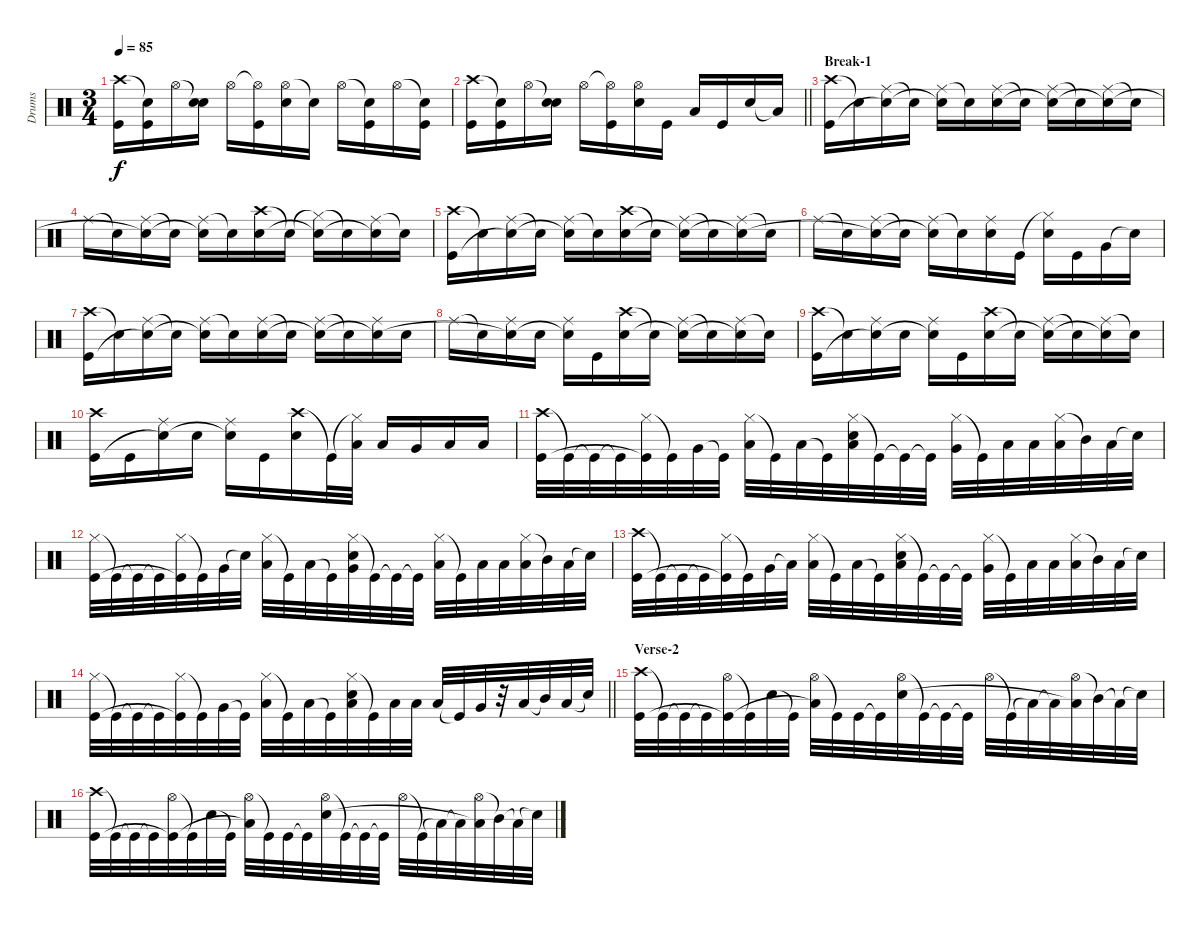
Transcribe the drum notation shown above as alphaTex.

\track ("Drums" "Drums") {instrument percussion}
\staff {score}
\articulation defaults
\ts (3 4)
\tempo 85
\clef neutral
\ks c
("Crash high (hit)" "Kick (hit)").16{dy f} ("Snare (hit)"{t} "Kick (hit)").16 "Hi-Hat (open)".16 ("Snare (hit)"{t} "Electric Snare (hit)").16 "Hi-Hat (open)".16 ("Hi-Hat (open)"{t} "Kick (hit)").16 ("Hi-Hat (open)" "Electric Snare (hit)").16 "Snare (hit)"{t}.16 "Hi-Hat (open)".16 ("Snare (hit)"{t} "Kick (hit)").16 "Hi-Hat (open)".16 ("Snare (hit)"{t} "Kick (hit)").16 |
\barLineRight lightlight
("Crash high (hit)" "Kick (hit)").16 ("Snare (hit)"{t} "Kick (hit)").16 "Hi-Hat (open)".16 ("Snare (hit)"{t} "Electric Snare (hit)").16 "Hi-Hat (open)".16 ("Hi-Hat (open)"{t} "Kick (hit)").16 ("Hi-Hat (open)" "Electric Snare (hit)").16 "Kick (hit)".16 "Low Tom (hit)".16 "Kick (hit)".16 "Electric Snare (hit)".16 "Low Floor Tom (hit)"{t}.16 |
\section ("" "Break-1")
("Crash high (hit)" "Kick (hit)").16 "Snare (hit)"{t}.16 ("Ride (middle)" "Snare (hit)"{t}).16 "Snare (hit)"{t}.16 ("Ride (middle)" "Snare (hit)"{t}).16 "Snare (hit)"{t}.16 ("Ride (middle)" "Electric Snare (hit)").16 "Snare (hit)"{t}.16 ("Ride (middle)" "Snare (hit)"{t}).16 "Snare (hit)"{t}.16 ("Ride (middle)" "Snare (hit)"{t}).16 "Snare (hit)"{t}.16 |
"Ride (middle)".16 "Snare (hit)"{t}.16 ("Ride (middle)" "Snare (hit)"{t}).16 "Snare (hit)"{t}.16 ("Ride (middle)" "Snare (hit)"{t}).16 "Snare (hit)"{t}.16 ("Crash high (hit)" "Electric Snare (hit)").16 "Snare (hit)"{t}.16 ("Hi-Hat (closed)"{t} "Snare (hit)"{t}).16 "Snare (hit)"{t}.16 ("Ride (middle)" "Snare (hit)"{t}).16 "Snare (hit)"{t}.16 |
("Crash high (hit)" "Kick (hit)").16 "Snare (hit)"{t}.16 ("Ride (middle)" "Snare (hit)"{t}).16 "Snare (hit)"{t}.16 ("Ride (middle)" "Snare (hit)"{t}).16 "Snare (hit)"{t}.16 ("Crash high (hit)" "Electric Snare (hit)").16 "Snare (hit)"{t}.16 ("Ride (middle)" "Snare (hit)"{t}).16 "Snare (hit)"{t}.16 ("Ride (middle)" "Snare (hit)"{t}).16 "Snare (hit)"{t}.16 |
"Ride (middle)".16 "Snare (hit)"{t}.16 ("Ride (middle)" "Snare (hit)"{t}).16 "Snare (hit)"{t}.16 ("Ride (middle)" "Snare (hit)"{t}).16 "Snare (hit)"{t}.16 ("Ride (middle)" "Electric Snare (hit)").16 "Kick (hit)".16 ("Hi-Hat (closed)"{t} "Electric Snare (hit)").16 "Kick (hit)".16 "Very Low Tom (hit)".16 "Snare (hit)"{t}.16 |
("Crash high (hit)" "Kick (hit)").16 "Snare (hit)"{t}.16 ("Ride (middle)" "Snare (hit)"{t}).16 "Snare (hit)"{t}.16 ("Ride (middle)" "Snare (hit)"{t}).16 "Snare (hit)"{t}.16 ("Ride (middle)" "Electric Snare (hit)").16 "Snare (hit)"{t}.16 ("Ride (middle)" "Snare (hit)"{t}).16 "Snare (hit)"{t}.16 ("Ride (middle)" "Snare (hit)"{t}).16 "Electric Snare (hit)".16 |
"Ride (middle)".16 "Snare (hit)"{t}.16 ("Ride (middle)" "Snare (hit)"{t}).16 "Electric Snare (hit)".16 ("Ride (middle)" "Snare (hit)"{t}).16 "Kick (hit)".16 ("Crash high (hit)" "Electric Snare (hit)").16 "Snare (hit)"{t}.16 ("Ride (middle)" "Snare (hit)"{t}).16 "Snare (hit)"{t}.16 ("Ride (middle)" "Snare (hit)"{t}).16 "Snare (hit)"{t}.16 |
("Crash high (hit)" "Kick (hit)").16 "Snare (hit)"{t}.16 ("Ride (middle)" "Snare (hit)"{t}).16 "Electric Snare (hit)".16 ("Ride (middle)" "Snare (hit)"{t}).16 "Kick (hit)".16 ("Crash high (hit)" "Electric Snare (hit)").16 "Snare (hit)"{t}.16 ("Ride (middle)" "Snare (hit)"{t}).16 "Snare (hit)"{t}.16 ("Ride (middle)" "Snare (hit)"{t}).16 "Snare (hit)"{t}.16 |
("Crash high (hit)" "Kick (hit)").16 "Kick (hit)".16 ("Ride (middle)" "Snare (hit)"{t}).16 "Electric Snare (hit)".16 ("Ride (middle)" "Snare (hit)"{t}).16 "Kick (hit)".16 ("Crash high (hit)" "Electric Snare (hit)").16 "Kick (hit)"{t}.32 ("Hi-Hat (closed)"{t} "Low Tom (hit)").32 "Low Tom (hit)".16 "Very Low Tom (hit)".16 "Low Floor Tom (hit)".16 "Low Floor Tom (hit)".16 |
("Crash high (hit)" "Kick (hit)").32 "Kick (hit)"{t}.32 "Kick (hit)"{t}.32 "Kick (hit)"{t}.32 ("Hi-Hat (closed)" "Kick (hit)"{t}).32 "Kick (hit)"{t}.32 "Very Low Tom (hit)".32 "Kick (hit)"{t}.32 ("Hi-Hat (closed)" "Low Floor Tom (hit)").32 "Kick (hit)"{t}.32 "Low Floor Tom (hit)".32 "Kick (hit)"{t}.32 ("Hi-Hat (closed)" "Low Floor Tom (hit)" "Electric Snare (hit)").32 "Kick (hit)"{t}.32 "Kick (hit)"{t}.32 "Kick (hit)"{t}.32 ("Hi-Hat (closed)" "Very Low Tom (hit)").32 "Kick (hit)"{t}.32 "Low Floor Tom (hit)".32 "Low Floor Tom (hit)".32 ("Hi-Hat (closed)" "Low Floor Tom (hit)").32 "Mid Tom (hit)"{t}.32 "Low Floor Tom (hit)".32 "Snare (hit)"{t}.32 |
("Hi-Hat (closed)" "Kick (hit)").32 "Kick (hit)"{t}.32 "Kick (hit)"{t}.32 "Kick (hit)"{t}.32 ("Hi-Hat (closed)" "Kick (hit)"{t}).32 "Kick (hit)"{t}.32 "Very Low Tom (hit)".32 "Snare (hit)"{t}.32 ("Hi-Hat (closed)" "Low Floor Tom (hit)").32 "Kick (hit)"{t}.32 "Low Floor Tom (hit)".32 "Kick (hit)"{t}.32 ("Hi-Hat (closed)" "Very Low Tom (hit)" "Electric Snare (hit)").32 "Kick (hit)"{t}.32 "Kick (hit)"{t}.32 "Kick (hit)"{t}.32 ("Hi-Hat (closed)" "Low Floor Tom (hit)").32 "Kick (hit)"{t}.32 "Low Floor Tom (hit)".32 "Low Floor Tom (hit)".32 ("Hi-Hat (closed)" "Low Floor Tom (hit)").32 "Mid Tom (hit)"{t}.32 "Low Floor Tom (hit)".32 "Snare (hit)"{t}.32 |
("Crash high (hit)" "Kick (hit)").32 "Kick (hit)"{t}.32 "Kick (hit)"{t}.32 "Kick (hit)"{t}.32 ("Hi-Hat (closed)" "Kick (hit)"{t}).32 "Kick (hit)"{t}.32 "Very Low Tom (hit)".32 "Low Floor Tom (hit)"{t}.32 ("Hi-Hat (closed)" "Low Floor Tom (hit)").32 "Kick (hit)"{t}.32 "Low Floor Tom (hit)".32 "Kick (hit)"{t}.32 ("Hi-Hat (closed)" "Low Floor Tom (hit)" "Electric Snare (hit)").32 "Kick (hit)"{t}.32 "Kick (hit)"{t}.32 "Kick (hit)"{t}.32 ("Hi-Hat (closed)" "Very Low Tom (hit)").32 "Kick (hit)"{t}.32 "Low Floor Tom (hit)".32 "Low Floor Tom (hit)".32 ("Hi-Hat (closed)" "Low Floor Tom (hit)").32 "Mid Tom (hit)"{t}.32 "Low Floor Tom (hit)".32 "Snare (hit)"{t}.32 |
\barLineRight lightlight
("Hi-Hat (closed)" "Kick (hit)").32 "Kick (hit)"{t}.32 "Kick (hit)"{t}.32 "Kick (hit)"{t}.32 ("Hi-Hat (closed)" "Kick (hit)"{t}).32 "Kick (hit)"{t}.32 "Very Low Tom (hit)".32 "Kick (hit)"{t}.32 ("Hi-Hat (closed)" "Low Floor Tom (hit)").32 "Kick (hit)"{t}.32 "Low Floor Tom (hit)".32 "Kick (hit)"{t}.32 ("Hi-Hat (closed)" "Low Floor Tom (hit)" "Electric Snare (hit)").32 "Kick (hit)"{t}.32 "Low Tom (hit)".32 "Low Tom (hit)".32 "Low Tom (hit)".32 "Kick (hit)"{t}.32 "Very Low Tom (hit)".32 r.32 "Low Floor Tom (hit)".32 "Mid Tom (hit)"{t}.32 "Low Floor Tom (hit)".32 "Snare (hit)"{t}.32 |
\section ("" "Verse-2")
("Crash high (hit)" "Kick (hit)").32 "Kick (hit)"{t}.32 "Kick (hit)"{t}.32 "Kick (hit)"{t}.32 ("Hi-Hat (open)" "Kick (hit)"{t}).32 "Kick (hit)"{t}.32 "Electric Snare (hit)".32 "Kick (hit)"{t}.32 ("Hi-Hat (open)" "Low Floor Tom (hit)"{t}).32 "Kick (hit)"{t}.32 "Kick (hit)".32 "Kick (hit)"{t}.32 ("Hi-Hat (open)" "Electric Snare (hit)").32 "Kick (hit)"{t}.32 "Kick (hit)"{t}.32 "Kick (hit)"{t}.32 "Hi-Hat (open)".32 "Kick (hit)"{t}.32 "Low Floor Tom (hit)"{t}.32 "Low Floor Tom (hit)"{t}.32 ("Hi-Hat (open)" "Low Floor Tom (hit)"{t}).32 "Mid Tom (hit)"{t}.32 "Low Floor Tom (hit)"{t}.32 "Snare (hit)"{t}.32 |
("Crash high (hit)" "Kick (hit)").32 "Kick (hit)"{t}.32 "Kick (hit)"{t}.32 "Kick (hit)"{t}.32 ("Hi-Hat (open)" "Kick (hit)"{t}).32 "Kick (hit)"{t}.32 "Electric Snare (hit)".32 "Kick (hit)"{t}.32 ("Hi-Hat (open)" "Low Floor Tom (hit)"{t}).32 "Kick (hit)"{t}.32 "Kick (hit)".32 "Kick (hit)"{t}.32 ("Hi-Hat (open)" "Electric Snare (hit)").32 "Kick (hit)"{t}.32 "Kick (hit)"{t}.32 "Kick (hit)"{t}.32 "Hi-Hat (open)".32 "Kick (hit)"{t}.32 "Low Floor Tom (hit)"{t}.32 "Low Floor Tom (hit)"{t}.32 ("Hi-Hat (open)" "Low Floor Tom (hit)"{t}).32 "Mid Tom (hit)"{t}.32 "Low Floor Tom (hit)"{t}.32 "Snare (hit)"{t}.32
